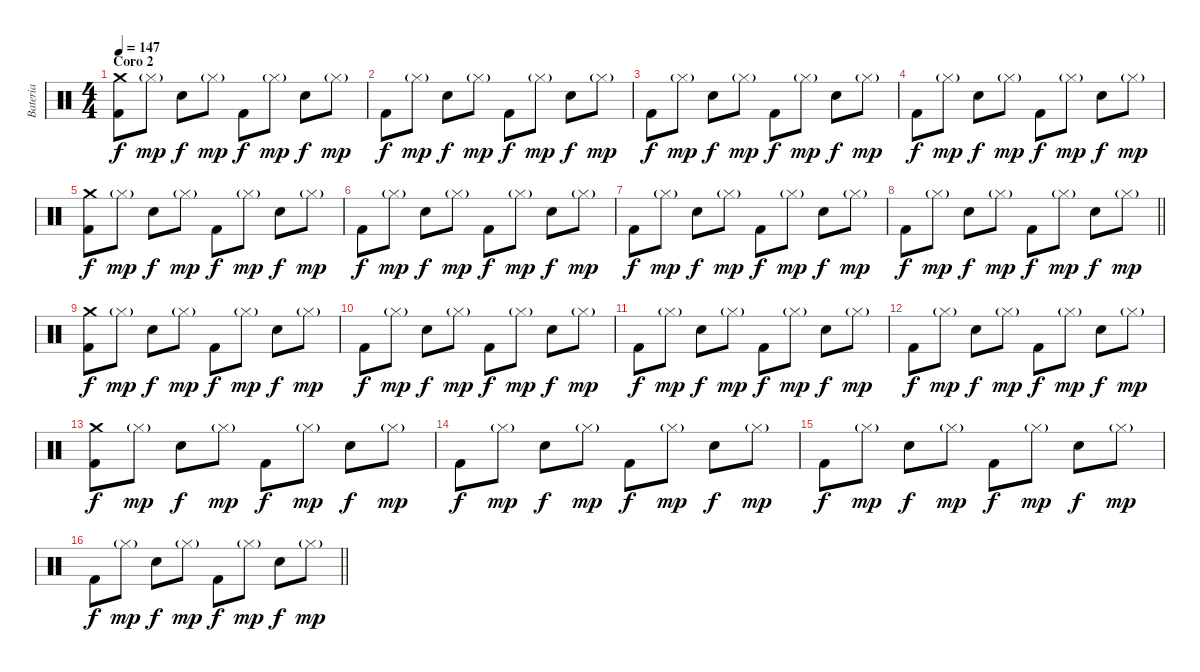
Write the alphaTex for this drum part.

\track ("Bateria" "Bateria") {instrument percussion}
\staff {score}
\articulation defaults
\ts (4 4)
\section ("" "Coro 2")
\tempo 147
\clef neutral
\ks c
("Crash medium (hit)" "Kick (hit) 2").8{dy f} "Hi-Hat (closed)"{g}.8{dy mp} "Electric Snare (hit)".8{dy f} "Hi-Hat (closed)"{g}.8{dy mp} "Kick (hit) 2".8{dy f} "Hi-Hat (closed)"{g}.8{dy mp} "Electric Snare (hit)".8{dy f} "Hi-Hat (closed)"{g}.8{dy mp} |
"Kick (hit) 2".8{dy f} "Hi-Hat (closed)"{g}.8{dy mp} "Electric Snare (hit)".8{dy f} "Hi-Hat (closed)"{g}.8{dy mp} "Kick (hit) 2".8{dy f} "Hi-Hat (closed)"{g}.8{dy mp} "Electric Snare (hit)".8{dy f} "Hi-Hat (closed)"{g}.8{dy mp} |
"Kick (hit) 2".8{dy f} "Hi-Hat (closed)"{g}.8{dy mp} "Electric Snare (hit)".8{dy f} "Hi-Hat (closed)"{g}.8{dy mp} "Kick (hit) 2".8{dy f} "Hi-Hat (closed)"{g}.8{dy mp} "Electric Snare (hit)".8{dy f} "Hi-Hat (closed)"{g}.8{dy mp} |
"Kick (hit) 2".8{dy f} "Hi-Hat (closed)"{g}.8{dy mp} "Electric Snare (hit)".8{dy f} "Hi-Hat (closed)"{g}.8{dy mp} "Kick (hit) 2".8{dy f} "Hi-Hat (closed)"{g}.8{dy mp} "Electric Snare (hit)".8{dy f} "Hi-Hat (closed)"{g}.8{dy mp} |
("Crash medium (hit)" "Kick (hit) 2").8{dy f} "Hi-Hat (closed)"{g}.8{dy mp} "Electric Snare (hit)".8{dy f} "Hi-Hat (closed)"{g}.8{dy mp} "Kick (hit) 2".8{dy f} "Hi-Hat (closed)"{g}.8{dy mp} "Electric Snare (hit)".8{dy f} "Hi-Hat (closed)"{g}.8{dy mp} |
"Kick (hit) 2".8{dy f} "Hi-Hat (closed)"{g}.8{dy mp} "Electric Snare (hit)".8{dy f} "Hi-Hat (closed)"{g}.8{dy mp} "Kick (hit) 2".8{dy f} "Hi-Hat (closed)"{g}.8{dy mp} "Electric Snare (hit)".8{dy f} "Hi-Hat (closed)"{g}.8{dy mp} |
"Kick (hit) 2".8{dy f} "Hi-Hat (closed)"{g}.8{dy mp} "Electric Snare (hit)".8{dy f} "Hi-Hat (closed)"{g}.8{dy mp} "Kick (hit) 2".8{dy f} "Hi-Hat (closed)"{g}.8{dy mp} "Electric Snare (hit)".8{dy f} "Hi-Hat (closed)"{g}.8{dy mp} |
\barLineRight lightlight "Kick (hit) 2".8{dy f} "Hi-Hat (closed)"{g}.8{dy mp} "Electric Snare (hit)".8{dy f} "Hi-Hat (closed)"{g}.8{dy mp} "Kick (hit) 2".8{dy f} "Hi-Hat (closed)"{g}.8{dy mp} "Electric Snare (hit)".8{dy f} "Hi-Hat (closed)"{g}.8{dy mp}
|
\section ("" "")
("Crash medium (hit)" "Kick (hit) 2").8{dy f} "Hi-Hat (closed)"{g}.8{dy mp} "Electric Snare (hit)".8{dy f} "Hi-Hat (closed)"{g}.8{dy mp} "Kick (hit) 2".8{dy f} "Hi-Hat (closed)"{g}.8{dy mp} "Electric Snare (hit)".8{dy f} "Hi-Hat (closed)"{g}.8{dy mp} |
"Kick (hit) 2".8{dy f} "Hi-Hat (closed)"{g}.8{dy mp} "Electric Snare (hit)".8{dy f} "Hi-Hat (closed)"{g}.8{dy mp} "Kick (hit) 2".8{dy f} "Hi-Hat (closed)"{g}.8{dy mp} "Electric Snare (hit)".8{dy f} "Hi-Hat (closed)"{g}.8{dy mp} |
"Kick (hit) 2".8{dy f} "Hi-Hat (closed)"{g}.8{dy mp} "Electric Snare (hit)".8{dy f} "Hi-Hat (closed)"{g}.8{dy mp} "Kick (hit) 2".8{dy f} "Hi-Hat (closed)"{g}.8{dy mp} "Electric Snare (hit)".8{dy f} "Hi-Hat (closed)"{g}.8{dy mp} |
"Kick (hit) 2".8{dy f} "Hi-Hat (closed)"{g}.8{dy mp} "Electric Snare (hit)".8{dy f} "Hi-Hat (closed)"{g}.8{dy mp} "Kick (hit) 2".8{dy f} "Hi-Hat (closed)"{g}.8{dy mp} "Electric Snare (hit)".8{dy f} "Hi-Hat (closed)"{g}.8{dy mp} |
("Crash medium (hit)" "Kick (hit) 2").8{dy f} "Hi-Hat (closed)"{g}.8{dy mp} "Electric Snare (hit)".8{dy f} "Hi-Hat (closed)"{g}.8{dy mp} "Kick (hit) 2".8{dy f} "Hi-Hat (closed)"{g}.8{dy mp} "Electric Snare (hit)".8{dy f} "Hi-Hat (closed)"{g}.8{dy mp} |
"Kick (hit) 2".8{dy f} "Hi-Hat (closed)"{g}.8{dy mp} "Electric Snare (hit)".8{dy f} "Hi-Hat (closed)"{g}.8{dy mp} "Kick (hit) 2".8{dy f} "Hi-Hat (closed)"{g}.8{dy mp} "Electric Snare (hit)".8{dy f} "Hi-Hat (closed)"{g}.8{dy mp} |
"Kick (hit) 2".8{dy f} "Hi-Hat (closed)"{g}.8{dy mp} "Electric Snare (hit)".8{dy f} "Hi-Hat (closed)"{g}.8{dy mp} "Kick (hit) 2".8{dy f} "Hi-Hat (closed)"{g}.8{dy mp} "Electric Snare (hit)".8{dy f} "Hi-Hat (closed)"{g}.8{dy mp} |
\barLineRight lightlight "Kick (hit) 2".8{dy f} "Hi-Hat (closed)"{g}.8{dy mp} "Electric Snare (hit)".8{dy f} "Hi-Hat (closed)"{g}.8{dy mp} "Kick (hit) 2".8{dy f} "Hi-Hat (closed)"{g}.8{dy mp} "Electric Snare (hit)".8{dy f} "Hi-Hat (closed)"{g}.8{dy mp}
